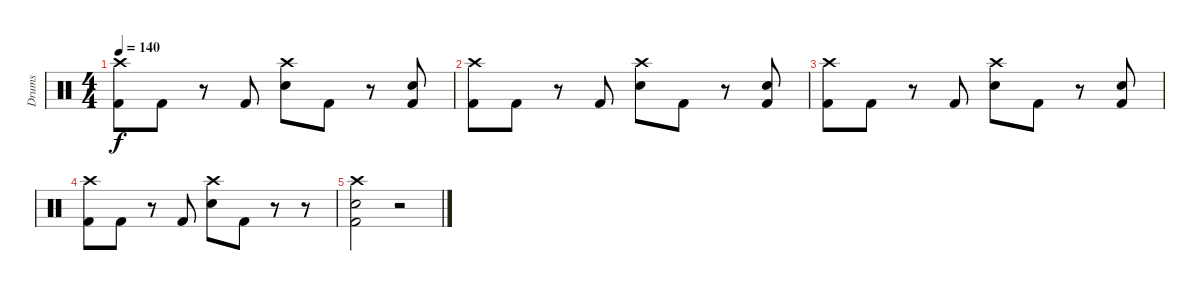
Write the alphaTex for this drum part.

\track ("Drums" "Drums") {instrument percussion}
\staff {score}
\articulation defaults
\ts (4 4)
\tempo 140
\clef neutral
\ks c
("Crash high (hit)" "Kick (hit) 2").8{dy f} "Kick (hit) 2".8 r.8 "Kick (hit) 2".8 ("Crash high (hit)" "Electric Snare (hit)").8 "Kick (hit) 2".8 r.8 ("Electric Snare (hit)" "Kick (hit) 2").8 |
("Crash high (hit)" "Kick (hit) 2").8 "Kick (hit) 2".8 r.8 "Kick (hit) 2".8 ("Crash high (hit)" "Electric Snare (hit)").8 "Kick (hit) 2".8 r.8 ("Electric Snare (hit)" "Kick (hit) 2").8 |
("Crash high (hit)" "Kick (hit) 2").8 "Kick (hit) 2".8 r.8 "Kick (hit) 2".8 ("Crash high (hit)" "Electric Snare (hit)").8 "Kick (hit) 2".8 r.8 ("Electric Snare (hit)" "Kick (hit) 2").8 |
("Crash high (hit)" "Kick (hit) 2").8 "Kick (hit) 2".8 r.8 "Kick (hit) 2".8 ("Crash high (hit)" "Electric Snare (hit)").8 "Kick (hit) 2".8 r.8 r.8 |
("Crash high (hit)" "Electric Snare (hit)" "Kick (hit) 2").2 r.2
